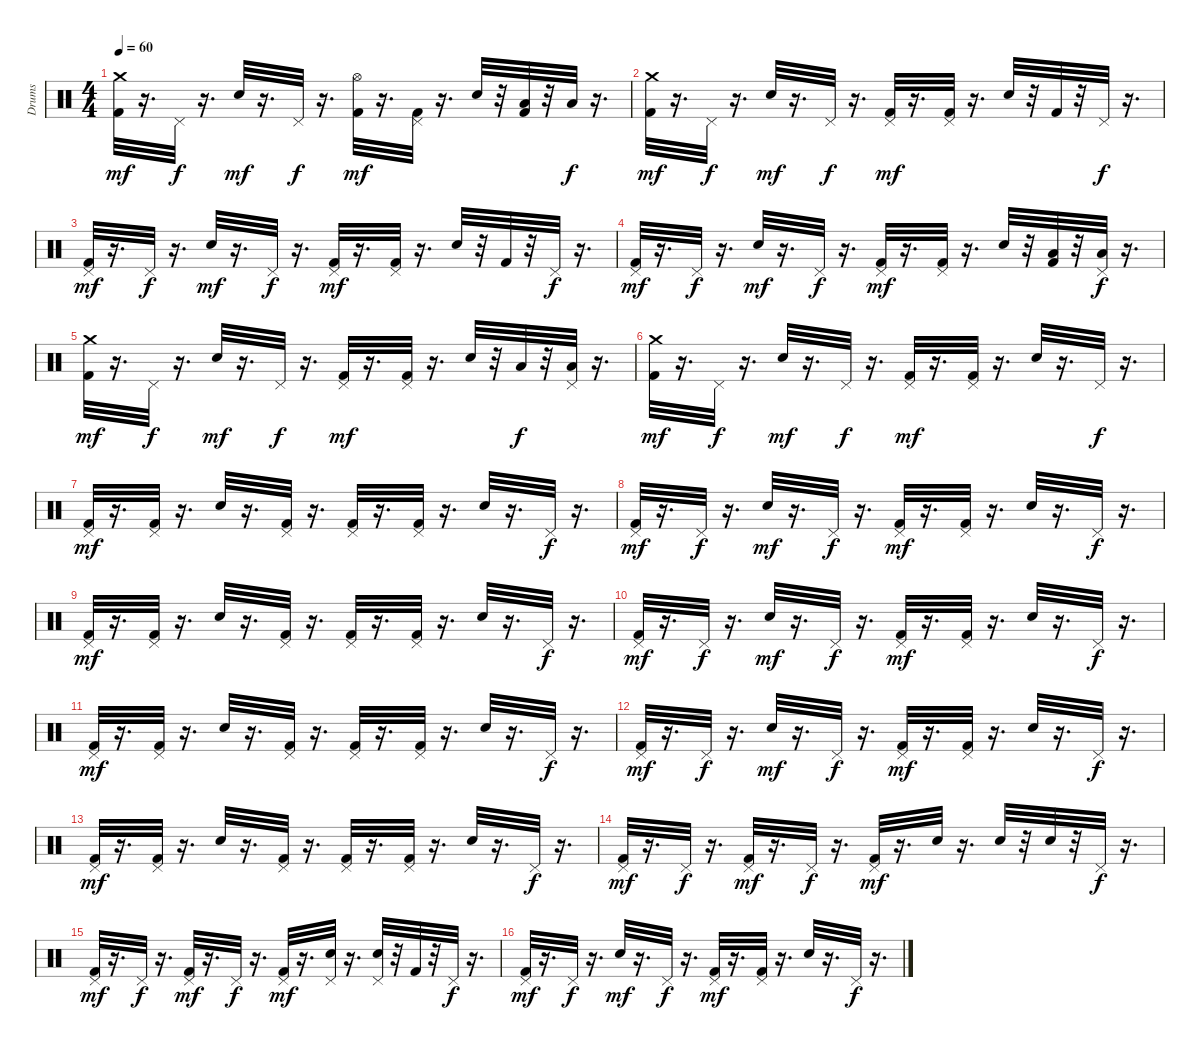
\track ("Drums" "Drums") {instrument percussion}
\staff {score}
\articulation defaults
\ts (4 4)
\tempo 60
\clef neutral
\ks c
("Crash medium (hit)" "Kick (hit) 2").32{dy mf} r.16{d} "Pedal Hi-Hat (hit)".32{dy f} r.16{d} "Electric Snare (hit)".32{dy mf} r.16{d} "Pedal Hi-Hat (hit)".32{dy f} r.16{d} ("Hi-Hat (open)" "Kick (hit) 2").32{dy mf} r.16{d} ("Kick (hit) 2" "Pedal Hi-Hat (hit)").32 r.16{d} "Electric Snare (hit)".32 r.32 ("Low Floor Tom (hit)" "Kick (hit) 2").32 r.32 "Low Floor Tom (hit)".32{dy f} r.16{d} |
("Crash medium (hit)" "Kick (hit) 2").32{dy mf} r.16{d} "Pedal Hi-Hat (hit)".32{dy f} r.16{d} "Electric Snare (hit)".32{dy mf} r.16{d} "Pedal Hi-Hat (hit)".32{dy f} r.16{d} ("Pedal Hi-Hat (hit)" "Kick (hit) 2").32{dy mf} r.16{d} ("Kick (hit) 2" "Pedal Hi-Hat (hit)").32 r.16{d} "Electric Snare (hit)".32 r.32 "Kick (hit) 2".32 r.32 "Pedal Hi-Hat (hit)".32{dy f} r.16{d} |
("Pedal Hi-Hat (hit)" "Kick (hit) 2").32{dy mf} r.16{d} "Pedal Hi-Hat (hit)".32{dy f} r.16{d} "Electric Snare (hit)".32{dy mf} r.16{d} "Pedal Hi-Hat (hit)".32{dy f} r.16{d} ("Pedal Hi-Hat (hit)" "Kick (hit) 2").32{dy mf} r.16{d} ("Kick (hit) 2" "Pedal Hi-Hat (hit)").32 r.16{d} "Electric Snare (hit)".32 r.32 "Kick (hit) 2".32 r.32 "Pedal Hi-Hat (hit)".32{dy f} r.16{d} |
("Pedal Hi-Hat (hit)" "Kick (hit) 2").32{dy mf} r.16{d} "Pedal Hi-Hat (hit)".32{dy f} r.16{d} "Electric Snare (hit)".32{dy mf} r.16{d} "Pedal Hi-Hat (hit)".32{dy f} r.16{d} ("Pedal Hi-Hat (hit)" "Kick (hit) 2").32{dy mf} r.16{d} ("Kick (hit) 2" "Pedal Hi-Hat (hit)").32 r.16{d} "Electric Snare (hit)".32 r.32 ("Low Floor Tom (hit)" "Kick (hit) 2").32 r.32 ("Low Floor Tom (hit)" "Pedal Hi-Hat (hit)").32{dy f} r.16{d} |
("Crash medium (hit)" "Kick (hit) 2").32{dy mf} r.16{d} "Pedal Hi-Hat (hit)".32{dy f} r.16{d} "Electric Snare (hit)".32{dy mf} r.16{d} "Pedal Hi-Hat (hit)".32{dy f} r.16{d} ("Pedal Hi-Hat (hit)" "Kick (hit) 2").32{dy mf} r.16{d} ("Kick (hit) 2" "Pedal Hi-Hat (hit)").32 r.16{d} "Electric Snare (hit)".32 r.32 "Low Floor Tom (hit)".32{dy f} r.32 ("Low Floor Tom (hit)" "Pedal Hi-Hat (hit)").32 r.16{d} |
("Crash medium (hit)" "Kick (hit) 2").32{dy mf} r.16{d} "Pedal Hi-Hat (hit)".32{dy f} r.16{d} "Electric Snare (hit)".32{dy mf} r.16{d} "Pedal Hi-Hat (hit)".32{dy f} r.16{d} ("Pedal Hi-Hat (hit)" "Kick (hit) 2").32{dy mf} r.16{d} ("Kick (hit) 2" "Pedal Hi-Hat (hit)").32 r.16{d} "Electric Snare (hit)".32 r.16{d} "Pedal Hi-Hat (hit)".32{dy f} r.16{d} |
("Pedal Hi-Hat (hit)" "Kick (hit) 2").32{dy mf} r.16{d} ("Kick (hit) 2" "Pedal Hi-Hat (hit)").32 r.16{d} "Electric Snare (hit)".32 r.16{d} ("Pedal Hi-Hat (hit)" "Kick (hit) 2").32 r.16{d} ("Kick (hit) 2" "Pedal Hi-Hat (hit)").32 r.16{d} ("Kick (hit) 2" "Pedal Hi-Hat (hit)").32 r.16{d} "Electric Snare (hit)".32 r.16{d} "Pedal Hi-Hat (hit)".32{dy f} r.16{d} |
("Pedal Hi-Hat (hit)" "Kick (hit) 2").32{dy mf} r.16{d} "Pedal Hi-Hat (hit)".32{dy f} r.16{d} "Electric Snare (hit)".32{dy mf} r.16{d} "Pedal Hi-Hat (hit)".32{dy f} r.16{d} ("Pedal Hi-Hat (hit)" "Kick (hit) 2").32{dy mf} r.16{d} ("Kick (hit) 2" "Pedal Hi-Hat (hit)").32 r.16{d} "Electric Snare (hit)".32 r.16{d} "Pedal Hi-Hat (hit)".32{dy f} r.16{d} |
("Pedal Hi-Hat (hit)" "Kick (hit) 2").32{dy mf} r.16{d} ("Kick (hit) 2" "Pedal Hi-Hat (hit)").32 r.16{d} "Electric Snare (hit)".32 r.16{d} ("Pedal Hi-Hat (hit)" "Kick (hit) 2").32 r.16{d} ("Kick (hit) 2" "Pedal Hi-Hat (hit)").32 r.16{d} ("Kick (hit) 2" "Pedal Hi-Hat (hit)").32 r.16{d} "Electric Snare (hit)".32 r.16{d} "Pedal Hi-Hat (hit)".32{dy f} r.16{d} |
("Pedal Hi-Hat (hit)" "Kick (hit) 2").32{dy mf} r.16{d} "Pedal Hi-Hat (hit)".32{dy f} r.16{d} "Electric Snare (hit)".32{dy mf} r.16{d} "Pedal Hi-Hat (hit)".32{dy f} r.16{d} ("Pedal Hi-Hat (hit)" "Kick (hit) 2").32{dy mf} r.16{d} ("Kick (hit) 2" "Pedal Hi-Hat (hit)").32 r.16{d} "Electric Snare (hit)".32 r.16{d} "Pedal Hi-Hat (hit)".32{dy f} r.16{d} |
("Pedal Hi-Hat (hit)" "Kick (hit) 2").32{dy mf} r.16{d} ("Kick (hit) 2" "Pedal Hi-Hat (hit)").32 r.16{d} "Electric Snare (hit)".32 r.16{d} ("Pedal Hi-Hat (hit)" "Kick (hit) 2").32 r.16{d} ("Kick (hit) 2" "Pedal Hi-Hat (hit)").32 r.16{d} ("Kick (hit) 2" "Pedal Hi-Hat (hit)").32 r.16{d} "Electric Snare (hit)".32 r.16{d} "Pedal Hi-Hat (hit)".32{dy f} r.16{d} |
("Pedal Hi-Hat (hit)" "Kick (hit) 2").32{dy mf} r.16{d} "Pedal Hi-Hat (hit)".32{dy f} r.16{d} "Electric Snare (hit)".32{dy mf} r.16{d} "Pedal Hi-Hat (hit)".32{dy f} r.16{d} ("Pedal Hi-Hat (hit)" "Kick (hit) 2").32{dy mf} r.16{d} ("Kick (hit) 2" "Pedal Hi-Hat (hit)").32 r.16{d} "Electric Snare (hit)".32 r.16{d} "Pedal Hi-Hat (hit)".32{dy f} r.16{d} |
("Pedal Hi-Hat (hit)" "Kick (hit) 2").32{dy mf} r.16{d} ("Kick (hit) 2" "Pedal Hi-Hat (hit)").32 r.16{d} "Electric Snare (hit)".32 r.16{d} ("Pedal Hi-Hat (hit)" "Kick (hit) 2").32 r.16{d} ("Kick (hit) 2" "Pedal Hi-Hat (hit)").32 r.16{d} ("Kick (hit) 2" "Pedal Hi-Hat (hit)").32 r.16{d} "Electric Snare (hit)".32 r.16{d} "Pedal Hi-Hat (hit)".32{dy f} r.16{d} |
("Pedal Hi-Hat (hit)" "Kick (hit) 2").32{dy mf} r.16{d} "Pedal Hi-Hat (hit)".32{dy f} r.16{d} ("Kick (hit) 2" "Pedal Hi-Hat (hit)").32{dy mf} r.16{d} "Pedal Hi-Hat (hit)".32{dy f} r.16{d} ("Pedal Hi-Hat (hit)" "Kick (hit) 2").32{dy mf} r.16{d} "Electric Snare (hit)".32 r.16{d} "Electric Snare (hit)".32 r.32 "Electric Snare (hit)".32 r.32 "Pedal Hi-Hat (hit)".32{dy f} r.16{d} |
("Pedal Hi-Hat (hit)" "Kick (hit) 2").32{dy mf} r.16{d} "Pedal Hi-Hat (hit)".32{dy f} r.16{d} ("Kick (hit) 2" "Pedal Hi-Hat (hit)").32{dy mf} r.16{d} "Pedal Hi-Hat (hit)".32{dy f} r.16{d} ("Pedal Hi-Hat (hit)" "Kick (hit) 2").32{dy mf} r.16{d} ("Electric Snare (hit)" "Pedal Hi-Hat (hit)").32 r.16{d} ("Electric Snare (hit)" "Pedal Hi-Hat (hit)").32 r.32 "Kick (hit) 2".32 r.32 "Pedal Hi-Hat (hit)".32{dy f} r.16{d} |
("Pedal Hi-Hat (hit)" "Kick (hit) 2").32{dy mf} r.16{d} "Pedal Hi-Hat (hit)".32{dy f} r.16{d} "Electric Snare (hit)".32{dy mf} r.16{d} "Pedal Hi-Hat (hit)".32{dy f} r.16{d} ("Pedal Hi-Hat (hit)" "Kick (hit) 2").32{dy mf} r.16{d} ("Kick (hit) 2" "Pedal Hi-Hat (hit)").32 r.16{d} "Electric Snare (hit)".32 r.16{d} "Pedal Hi-Hat (hit)".32{dy f} r.16{d}
